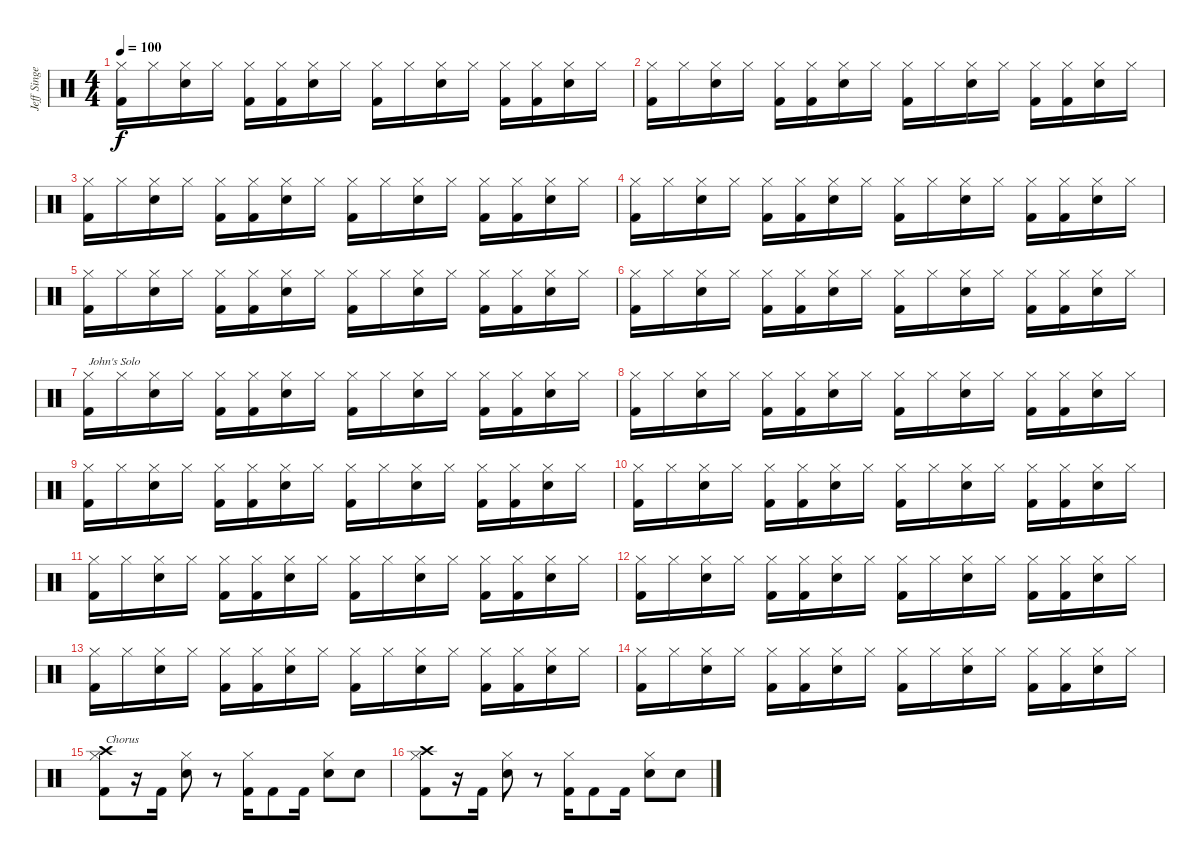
\track ("Jeff Singer" "Jeff Singe") {instrument percussion}
\staff {score}
\articulation defaults
\ts (4 4)
\tempo 100
\clef neutral
\ks c
("Hi-Hat (closed)" "Kick (hit) 2").16{dy f} "Hi-Hat (closed)".16 ("Hi-Hat (closed)" "Snare (hit) 2").16 "Hi-Hat (closed)".16 ("Hi-Hat (closed)" "Kick (hit) 2").16 ("Hi-Hat (closed)" "Kick (hit) 2").16 ("Hi-Hat (closed)" "Snare (hit) 2").16 "Hi-Hat (closed)".16 ("Hi-Hat (closed)" "Kick (hit) 2").16 "Hi-Hat (closed)".16 ("Hi-Hat (closed)" "Snare (hit) 2").16 "Hi-Hat (closed)".16 ("Hi-Hat (closed)" "Kick (hit) 2").16 ("Hi-Hat (closed)" "Kick (hit) 2").16 ("Hi-Hat (closed)" "Snare (hit) 2").16 "Hi-Hat (closed)".16 |
("Hi-Hat (closed)" "Kick (hit) 2").16 "Hi-Hat (closed)".16 ("Hi-Hat (closed)" "Snare (hit) 2").16 "Hi-Hat (closed)".16 ("Hi-Hat (closed)" "Kick (hit) 2").16 ("Hi-Hat (closed)" "Kick (hit) 2").16 ("Hi-Hat (closed)" "Snare (hit) 2").16 "Hi-Hat (closed)".16 ("Hi-Hat (closed)" "Kick (hit) 2").16 "Hi-Hat (closed)".16 ("Hi-Hat (closed)" "Snare (hit) 2").16 "Hi-Hat (closed)".16 ("Hi-Hat (closed)" "Kick (hit) 2").16 ("Hi-Hat (closed)" "Kick (hit) 2").16 ("Hi-Hat (closed)" "Snare (hit) 2").16 "Hi-Hat (closed)".16 |
("Hi-Hat (closed)" "Kick (hit) 2").16 "Hi-Hat (closed)".16 ("Hi-Hat (closed)" "Snare (hit) 2").16 "Hi-Hat (closed)".16 ("Hi-Hat (closed)" "Kick (hit) 2").16 ("Hi-Hat (closed)" "Kick (hit) 2").16 ("Hi-Hat (closed)" "Snare (hit) 2").16 "Hi-Hat (closed)".16 ("Hi-Hat (closed)" "Kick (hit) 2").16 "Hi-Hat (closed)".16 ("Hi-Hat (closed)" "Snare (hit) 2").16 "Hi-Hat (closed)".16 ("Hi-Hat (closed)" "Kick (hit) 2").16 ("Hi-Hat (closed)" "Kick (hit) 2").16 ("Hi-Hat (closed)" "Snare (hit) 2").16 "Hi-Hat (closed)".16 |
("Hi-Hat (closed)" "Kick (hit) 2").16 "Hi-Hat (closed)".16 ("Hi-Hat (closed)" "Snare (hit) 2").16 "Hi-Hat (closed)".16 ("Hi-Hat (closed)" "Kick (hit) 2").16 ("Hi-Hat (closed)" "Kick (hit) 2").16 ("Hi-Hat (closed)" "Snare (hit) 2").16 "Hi-Hat (closed)".16 ("Hi-Hat (closed)" "Kick (hit) 2").16 "Hi-Hat (closed)".16 ("Hi-Hat (closed)" "Snare (hit) 2").16 "Hi-Hat (closed)".16 ("Hi-Hat (closed)" "Kick (hit) 2").16 ("Hi-Hat (closed)" "Kick (hit) 2").16 ("Hi-Hat (closed)" "Snare (hit) 2").16 "Hi-Hat (closed)".16 |
("Hi-Hat (closed)" "Kick (hit) 2").16 "Hi-Hat (closed)".16 ("Hi-Hat (closed)" "Snare (hit) 2").16 "Hi-Hat (closed)".16 ("Hi-Hat (closed)" "Kick (hit) 2").16 ("Hi-Hat (closed)" "Kick (hit) 2").16 ("Hi-Hat (closed)" "Snare (hit) 2").16 "Hi-Hat (closed)".16 ("Hi-Hat (closed)" "Kick (hit) 2").16 "Hi-Hat (closed)".16 ("Hi-Hat (closed)" "Snare (hit) 2").16 "Hi-Hat (closed)".16 ("Hi-Hat (closed)" "Kick (hit) 2").16 ("Hi-Hat (closed)" "Kick (hit) 2").16 ("Hi-Hat (closed)" "Snare (hit) 2").16 "Hi-Hat (closed)".16 |
("Hi-Hat (closed)" "Kick (hit) 2").16 "Hi-Hat (closed)".16 ("Hi-Hat (closed)" "Snare (hit) 2").16 "Hi-Hat (closed)".16 ("Hi-Hat (closed)" "Kick (hit) 2").16 ("Hi-Hat (closed)" "Kick (hit) 2").16 ("Hi-Hat (closed)" "Snare (hit) 2").16 "Hi-Hat (closed)".16 ("Hi-Hat (closed)" "Kick (hit) 2").16 "Hi-Hat (closed)".16 ("Hi-Hat (closed)" "Snare (hit) 2").16 "Hi-Hat (closed)".16 ("Hi-Hat (closed)" "Kick (hit) 2").16 ("Hi-Hat (closed)" "Kick (hit) 2").16 ("Hi-Hat (closed)" "Snare (hit) 2").16 "Hi-Hat (closed)".16 |
("Hi-Hat (closed)" "Kick (hit) 2").16{txt "John's Solo"} "Hi-Hat (closed)".16 ("Hi-Hat (closed)" "Snare (hit) 2").16 "Hi-Hat (closed)".16 ("Hi-Hat (closed)" "Kick (hit) 2").16 ("Hi-Hat (closed)" "Kick (hit) 2").16 ("Hi-Hat (closed)" "Snare (hit) 2").16 "Hi-Hat (closed)".16 ("Hi-Hat (closed)" "Kick (hit) 2").16 "Hi-Hat (closed)".16 ("Hi-Hat (closed)" "Snare (hit) 2").16 "Hi-Hat (closed)".16 ("Hi-Hat (closed)" "Kick (hit) 2").16 ("Hi-Hat (closed)" "Kick (hit) 2").16 ("Hi-Hat (closed)" "Snare (hit) 2").16 "Hi-Hat (closed)".16 |
("Hi-Hat (closed)" "Kick (hit) 2").16 "Hi-Hat (closed)".16 ("Hi-Hat (closed)" "Snare (hit) 2").16 "Hi-Hat (closed)".16 ("Hi-Hat (closed)" "Kick (hit) 2").16 ("Hi-Hat (closed)" "Kick (hit) 2").16 ("Hi-Hat (closed)" "Snare (hit) 2").16 "Hi-Hat (closed)".16 ("Hi-Hat (closed)" "Kick (hit) 2").16 "Hi-Hat (closed)".16 ("Hi-Hat (closed)" "Snare (hit) 2").16 "Hi-Hat (closed)".16 ("Hi-Hat (closed)" "Kick (hit) 2").16 ("Hi-Hat (closed)" "Kick (hit) 2").16 ("Hi-Hat (closed)" "Snare (hit) 2").16 "Hi-Hat (closed)".16 |
("Hi-Hat (closed)" "Kick (hit) 2").16 "Hi-Hat (closed)".16 ("Hi-Hat (closed)" "Snare (hit) 2").16 "Hi-Hat (closed)".16 ("Hi-Hat (closed)" "Kick (hit) 2").16 ("Hi-Hat (closed)" "Kick (hit) 2").16 ("Hi-Hat (closed)" "Snare (hit) 2").16 "Hi-Hat (closed)".16 ("Hi-Hat (closed)" "Kick (hit) 2").16 "Hi-Hat (closed)".16 ("Hi-Hat (closed)" "Snare (hit) 2").16 "Hi-Hat (closed)".16 ("Hi-Hat (closed)" "Kick (hit) 2").16 ("Hi-Hat (closed)" "Kick (hit) 2").16 ("Hi-Hat (closed)" "Snare (hit) 2").16 "Hi-Hat (closed)".16 |
("Hi-Hat (closed)" "Kick (hit) 2").16 "Hi-Hat (closed)".16 ("Hi-Hat (closed)" "Snare (hit) 2").16 "Hi-Hat (closed)".16 ("Hi-Hat (closed)" "Kick (hit) 2").16 ("Hi-Hat (closed)" "Kick (hit) 2").16 ("Hi-Hat (closed)" "Snare (hit) 2").16 "Hi-Hat (closed)".16 ("Hi-Hat (closed)" "Kick (hit) 2").16 "Hi-Hat (closed)".16 ("Hi-Hat (closed)" "Snare (hit) 2").16 "Hi-Hat (closed)".16 ("Hi-Hat (closed)" "Kick (hit) 2").16 ("Hi-Hat (closed)" "Kick (hit) 2").16 ("Hi-Hat (closed)" "Snare (hit) 2").16 "Hi-Hat (closed)".16 |
("Hi-Hat (closed)" "Kick (hit) 2").16 "Hi-Hat (closed)".16 ("Hi-Hat (closed)" "Snare (hit) 2").16 "Hi-Hat (closed)".16 ("Hi-Hat (closed)" "Kick (hit) 2").16 ("Hi-Hat (closed)" "Kick (hit) 2").16 ("Hi-Hat (closed)" "Snare (hit) 2").16 "Hi-Hat (closed)".16 ("Hi-Hat (closed)" "Kick (hit) 2").16 "Hi-Hat (closed)".16 ("Hi-Hat (closed)" "Snare (hit) 2").16 "Hi-Hat (closed)".16 ("Hi-Hat (closed)" "Kick (hit) 2").16 ("Hi-Hat (closed)" "Kick (hit) 2").16 ("Hi-Hat (closed)" "Snare (hit) 2").16 "Hi-Hat (closed)".16 |
("Hi-Hat (closed)" "Kick (hit) 2").16 "Hi-Hat (closed)".16 ("Hi-Hat (closed)" "Snare (hit) 2").16 "Hi-Hat (closed)".16 ("Hi-Hat (closed)" "Kick (hit) 2").16 ("Hi-Hat (closed)" "Kick (hit) 2").16 ("Hi-Hat (closed)" "Snare (hit) 2").16 "Hi-Hat (closed)".16 ("Hi-Hat (closed)" "Kick (hit) 2").16 "Hi-Hat (closed)".16 ("Hi-Hat (closed)" "Snare (hit) 2").16 "Hi-Hat (closed)".16 ("Hi-Hat (closed)" "Kick (hit) 2").16 ("Hi-Hat (closed)" "Kick (hit) 2").16 ("Hi-Hat (closed)" "Snare (hit) 2").16 "Hi-Hat (closed)".16 |
("Hi-Hat (closed)" "Kick (hit) 2").16 "Hi-Hat (closed)".16 ("Hi-Hat (closed)" "Snare (hit) 2").16 "Hi-Hat (closed)".16 ("Hi-Hat (closed)" "Kick (hit) 2").16 ("Hi-Hat (closed)" "Kick (hit) 2").16 ("Hi-Hat (closed)" "Snare (hit) 2").16 "Hi-Hat (closed)".16 ("Hi-Hat (closed)" "Kick (hit) 2").16 "Hi-Hat (closed)".16 ("Hi-Hat (closed)" "Snare (hit) 2").16 "Hi-Hat (closed)".16 ("Hi-Hat (closed)" "Kick (hit) 2").16 ("Hi-Hat (closed)" "Kick (hit) 2").16 ("Hi-Hat (closed)" "Snare (hit) 2").16 "Hi-Hat (closed)".16 |
("Hi-Hat (closed)" "Kick (hit) 2").16 "Hi-Hat (closed)".16 ("Hi-Hat (closed)" "Snare (hit) 2").16 "Hi-Hat (closed)".16 ("Hi-Hat (closed)" "Kick (hit) 2").16 ("Hi-Hat (closed)" "Kick (hit) 2").16 ("Hi-Hat (closed)" "Snare (hit) 2").16 "Hi-Hat (closed)".16 ("Hi-Hat (closed)" "Kick (hit) 2").16 "Hi-Hat (closed)".16 ("Hi-Hat (closed)" "Snare (hit) 2").16 "Hi-Hat (closed)".16 ("Hi-Hat (closed)" "Kick (hit) 2").16 ("Hi-Hat (closed)" "Kick (hit) 2").16 ("Hi-Hat (closed)" "Snare (hit) 2").16 "Hi-Hat (closed)".16 |
("Hi-Hat (closed)" "Kick (hit) 2" "Crash high (hit)").8{txt "Chorus"} r.16 "Kick (hit) 2".16 ("Hi-Hat (closed)" "Snare (hit) 2").8 r.8 ("Hi-Hat (closed)" "Kick (hit) 2").16 "Kick (hit) 2".8 "Kick (hit) 2".16 ("Hi-Hat (closed)" "Snare (hit) 2").8 "Snare (hit) 2".8 |
("Hi-Hat (closed)" "Kick (hit) 2" "Crash high (hit)").8 r.16 "Kick (hit) 2".16 ("Hi-Hat (closed)" "Snare (hit) 2").8 r.8 ("Hi-Hat (closed)" "Kick (hit) 2").16 "Kick (hit) 2".8 "Kick (hit) 2".16 ("Hi-Hat (closed)" "Snare (hit) 2").8 "Snare (hit) 2".8
